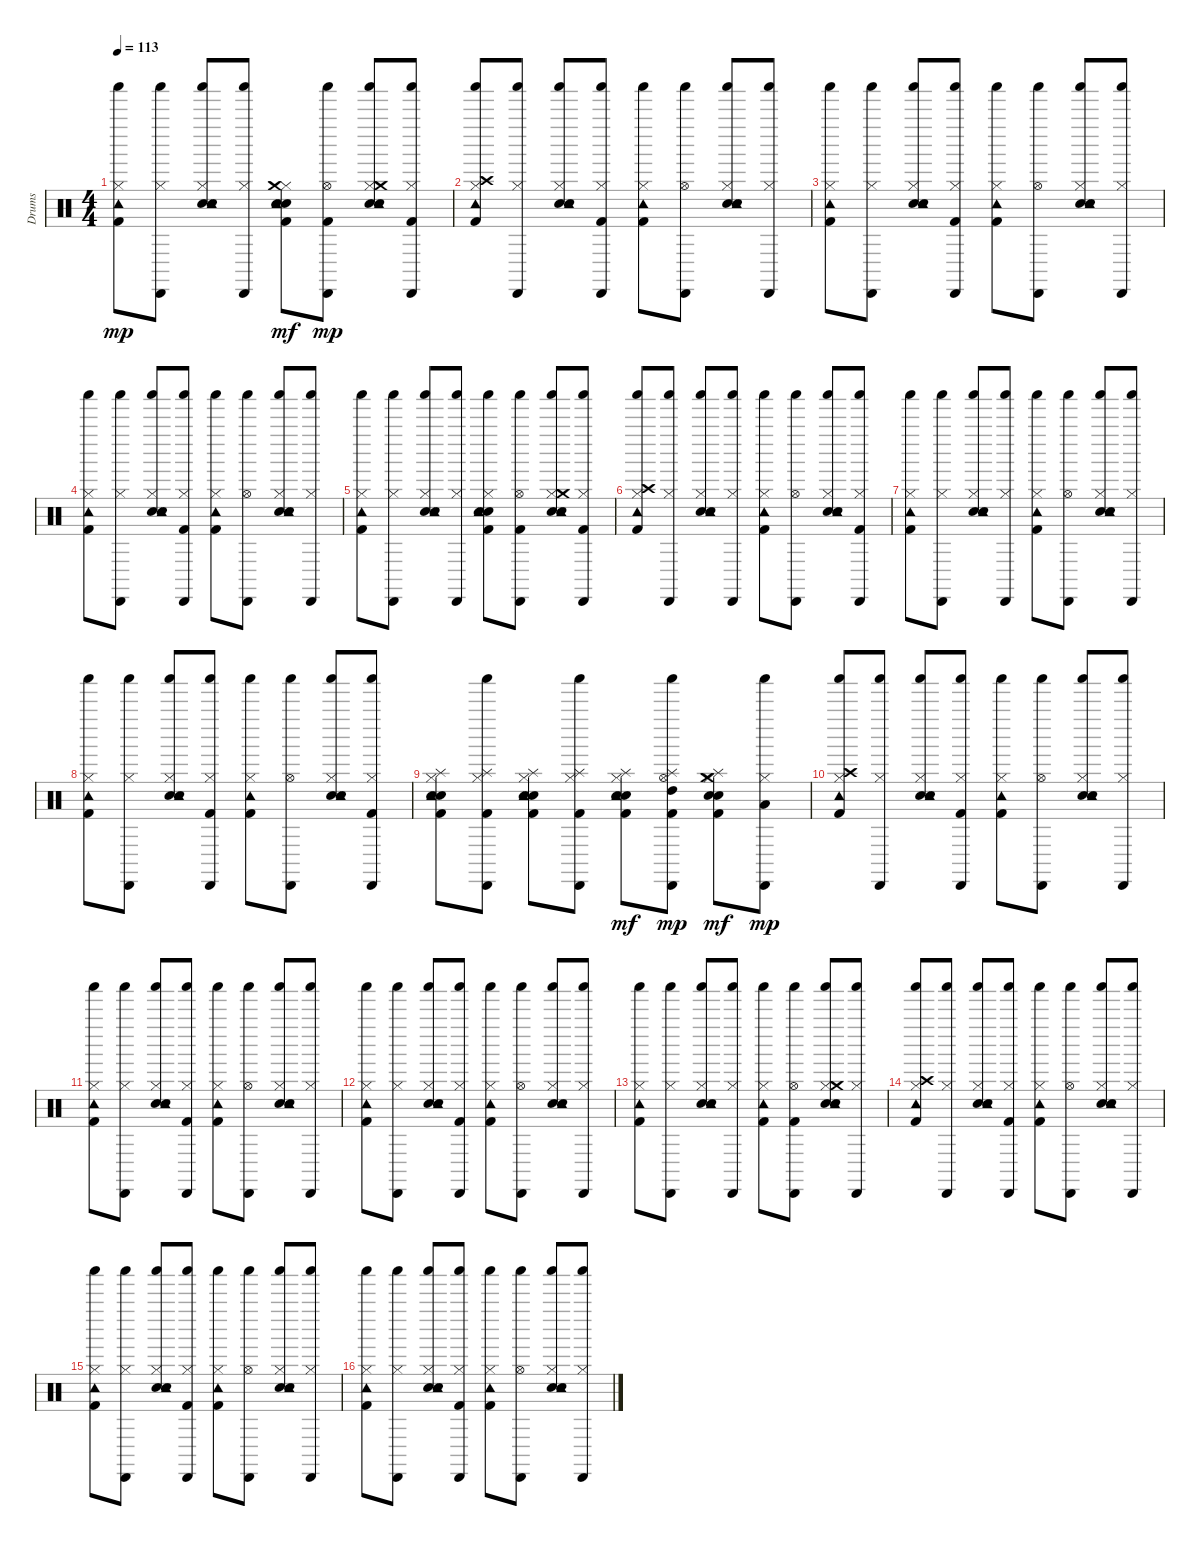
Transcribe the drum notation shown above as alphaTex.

\track ("Drums" "Drums") {instrument percussion}
\staff {score}
\articulation defaults
\ts (4 4)
\tempo 113
\clef neutral
\ks c
("Kick (hit) 2" "Hi-Hat (closed)" "Tambourine (hit)" "Shaker (hit)").8{dy mp} ("Hi-Hat (closed)" "Shaker (hit)" "Cabasa (hit)").8 ("Hand Clap (hit)" "Snare (hit) 2" "Hi-Hat (closed)" "Tambourine (hit)" "Shaker (hit)").8 ("Hi-Hat (closed)" "Shaker (hit)" "Cabasa (hit)").8 ("Kick (hit) 2" "Hand Clap (hit)" "Snare (hit) 2" "Hi-Hat (closed)" "Crash medium (hit)" "Tambourine (hit)").8{dy mf} ("Kick (hit) 2" "Hi-Hat (open)" "Shaker (hit)" "Cabasa (hit)").8{dy mp} ("Hand Clap (hit)" "Snare (hit) 2" "Hi-Hat (closed)" "Crash medium (hit)" "Tambourine (hit)" "Shaker (hit)").8 ("Kick (hit) 2" "Hi-Hat (closed)" "Shaker (hit)" "Cabasa (hit)").8 |
("Kick (hit) 2" "Hi-Hat (closed)" "Crash high (hit)" "Tambourine (hit)" "Shaker (hit)").8 ("Hi-Hat (closed)" "Shaker (hit)" "Cabasa (hit)").8 ("Hand Clap (hit)" "Snare (hit) 2" "Hi-Hat (closed)" "Tambourine (hit)" "Shaker (hit)").8 ("Hi-Hat (closed)" "Shaker (hit)" "Kick (hit) 2" "Cabasa (hit)").8 ("Kick (hit) 2" "Hi-Hat (closed)" "Tambourine (hit)" "Shaker (hit)").8 ("Hi-Hat (open)" "Shaker (hit)" "Cabasa (hit)").8 ("Hand Clap (hit)" "Snare (hit) 2" "Hi-Hat (closed)" "Tambourine (hit)" "Shaker (hit)").8 ("Hi-Hat (closed)" "Shaker (hit)" "Cabasa (hit)").8 |
("Kick (hit) 2" "Hi-Hat (closed)" "Tambourine (hit)" "Shaker (hit)").8 ("Hi-Hat (closed)" "Shaker (hit)" "Cabasa (hit)").8 ("Hand Clap (hit)" "Snare (hit) 2" "Hi-Hat (closed)" "Tambourine (hit)" "Shaker (hit)").8 ("Hi-Hat (closed)" "Shaker (hit)" "Kick (hit) 2" "Cabasa (hit)").8 ("Kick (hit) 2" "Hi-Hat (closed)" "Tambourine (hit)" "Shaker (hit)").8 ("Hi-Hat (open)" "Shaker (hit)" "Cabasa (hit)").8 ("Hand Clap (hit)" "Snare (hit) 2" "Hi-Hat (closed)" "Tambourine (hit)" "Shaker (hit)").8 ("Hi-Hat (closed)" "Shaker (hit)" "Cabasa (hit)").8 |
("Kick (hit) 2" "Hi-Hat (closed)" "Tambourine (hit)" "Shaker (hit)").8 ("Hi-Hat (closed)" "Shaker (hit)" "Cabasa (hit)").8 ("Hand Clap (hit)" "Snare (hit) 2" "Hi-Hat (closed)" "Tambourine (hit)" "Shaker (hit)").8 ("Hi-Hat (closed)" "Shaker (hit)" "Kick (hit) 2" "Cabasa (hit)").8 ("Kick (hit) 2" "Hi-Hat (closed)" "Tambourine (hit)" "Shaker (hit)").8 ("Hi-Hat (open)" "Shaker (hit)" "Cabasa (hit)").8 ("Hand Clap (hit)" "Snare (hit) 2" "Hi-Hat (closed)" "Tambourine (hit)" "Shaker (hit)").8 ("Hi-Hat (closed)" "Shaker (hit)" "Cabasa (hit)").8 |
("Kick (hit) 2" "Hi-Hat (closed)" "Tambourine (hit)" "Shaker (hit)").8 ("Hi-Hat (closed)" "Shaker (hit)" "Cabasa (hit)").8 ("Hand Clap (hit)" "Snare (hit) 2" "Hi-Hat (closed)" "Tambourine (hit)" "Shaker (hit)").8 ("Hi-Hat (closed)" "Shaker (hit)" "Cabasa (hit)").8 ("Kick (hit) 2" "Hand Clap (hit)" "Snare (hit) 2" "Hi-Hat (closed)" "Tambourine (hit)" "Shaker (hit)").8 ("Kick (hit) 2" "Hi-Hat (open)" "Shaker (hit)" "Cabasa (hit)").8 ("Hand Clap (hit)" "Snare (hit) 2" "Hi-Hat (closed)" "Crash medium (hit)" "Tambourine (hit)" "Shaker (hit)").8 ("Kick (hit) 2" "Hi-Hat (closed)" "Shaker (hit)" "Cabasa (hit)").8 |
("Kick (hit) 2" "Hi-Hat (closed)" "Crash high (hit)" "Tambourine (hit)" "Shaker (hit)").8 ("Hi-Hat (closed)" "Shaker (hit)" "Cabasa (hit)").8 ("Hand Clap (hit)" "Snare (hit) 2" "Hi-Hat (closed)" "Tambourine (hit)" "Shaker (hit)").8 ("Hi-Hat (closed)" "Shaker (hit)" "Cabasa (hit)").8 ("Kick (hit) 2" "Hi-Hat (closed)" "Tambourine (hit)" "Shaker (hit)").8 ("Hi-Hat (open)" "Shaker (hit)" "Cabasa (hit)").8 ("Hand Clap (hit)" "Snare (hit) 2" "Hi-Hat (closed)" "Tambourine (hit)" "Shaker (hit)").8 ("Hi-Hat (closed)" "Shaker (hit)" "Kick (hit) 2" "Cabasa (hit)").8 |
("Kick (hit) 2" "Hi-Hat (closed)" "Tambourine (hit)" "Shaker (hit)").8 ("Hi-Hat (closed)" "Shaker (hit)" "Cabasa (hit)").8 ("Hand Clap (hit)" "Snare (hit) 2" "Hi-Hat (closed)" "Tambourine (hit)" "Shaker (hit)").8 ("Hi-Hat (closed)" "Shaker (hit)" "Cabasa (hit)").8 ("Kick (hit) 2" "Hi-Hat (closed)" "Tambourine (hit)" "Shaker (hit)").8 ("Hi-Hat (open)" "Shaker (hit)" "Cabasa (hit)").8 ("Hand Clap (hit)" "Snare (hit) 2" "Hi-Hat (closed)" "Tambourine (hit)" "Shaker (hit)").8 ("Hi-Hat (closed)" "Shaker (hit)" "Cabasa (hit)").8 |
("Kick (hit) 2" "Hi-Hat (closed)" "Tambourine (hit)" "Shaker (hit)").8 ("Hi-Hat (closed)" "Shaker (hit)" "Cabasa (hit)").8 ("Hand Clap (hit)" "Snare (hit) 2" "Hi-Hat (closed)" "Tambourine (hit)" "Shaker (hit)").8 ("Hi-Hat (closed)" "Shaker (hit)" "Kick (hit) 2" "Cabasa (hit)").8 ("Kick (hit) 2" "Hi-Hat (closed)" "Tambourine (hit)" "Shaker (hit)").8 ("Hi-Hat (open)" "Shaker (hit)" "Cabasa (hit)").8 ("Hand Clap (hit)" "Snare (hit) 2" "Hi-Hat (closed)" "Tambourine (hit)" "Shaker (hit)").8 ("Hi-Hat (closed)" "Shaker (hit)" "Kick (hit) 2" "Cabasa (hit)").8 |
("Kick (hit) 2" "Snare (hit) 2" "Hand Clap (hit)" "Hi-Hat (closed)" "Splash (hit)" "Tambourine (hit)").8 ("Hi-Hat (closed)" "Splash (hit)" "Shaker (hit)" "Kick (hit) 2" "Cabasa (hit)").8 ("Kick (hit) 2" "Snare (hit) 2" "Hand Clap (hit)" "Hi-Hat (closed)" "Splash (hit)" "Tambourine (hit)").8 ("Hi-Hat (closed)" "Splash (hit)" "Shaker (hit)" "Kick (hit) 2" "Cabasa (hit)").8 ("Kick (hit) 2" "Snare (hit) 2" "Hand Clap (hit)" "Hi-Hat (closed)" "Splash (hit)" "Tambourine (hit)").8{dy mf} ("Hi-Hat (open)" "Splash (hit)" "High Tom (hit)" "Shaker (hit)" "Kick (hit) 2" "Cabasa (hit)").8{dy mp} ("Kick (hit) 2" "Hand Clap (hit)" "Snare (hit) 2" "Hi-Hat (closed)" "Splash (hit)" "Crash medium (hit)").8{dy mf} ("Hi-Hat (closed)" "Low Tom (hit)" "Shaker (hit)" "Cabasa (hit)").8{dy mp} |
("Kick (hit) 2" "Hi-Hat (closed)" "Crash high (hit)" "Tambourine (hit)" "Shaker (hit)").8 ("Hi-Hat (closed)" "Shaker (hit)" "Cabasa (hit)").8 ("Hand Clap (hit)" "Snare (hit) 2" "Hi-Hat (closed)" "Tambourine (hit)" "Shaker (hit)").8 ("Hi-Hat (closed)" "Shaker (hit)" "Kick (hit) 2" "Cabasa (hit)").8 ("Kick (hit) 2" "Hi-Hat (closed)" "Tambourine (hit)" "Shaker (hit)").8 ("Hi-Hat (open)" "Shaker (hit)" "Cabasa (hit)").8 ("Hand Clap (hit)" "Snare (hit) 2" "Hi-Hat (closed)" "Tambourine (hit)" "Shaker (hit)").8 ("Hi-Hat (closed)" "Shaker (hit)" "Cabasa (hit)").8 |
("Kick (hit) 2" "Hi-Hat (closed)" "Tambourine (hit)" "Shaker (hit)").8 ("Hi-Hat (closed)" "Shaker (hit)" "Cabasa (hit)").8 ("Hand Clap (hit)" "Snare (hit) 2" "Hi-Hat (closed)" "Tambourine (hit)" "Shaker (hit)").8 ("Hi-Hat (closed)" "Shaker (hit)" "Kick (hit) 2" "Cabasa (hit)").8 ("Kick (hit) 2" "Hi-Hat (closed)" "Tambourine (hit)" "Shaker (hit)").8 ("Hi-Hat (open)" "Shaker (hit)" "Cabasa (hit)").8 ("Hand Clap (hit)" "Snare (hit) 2" "Hi-Hat (closed)" "Tambourine (hit)" "Shaker (hit)").8 ("Hi-Hat (closed)" "Shaker (hit)" "Cabasa (hit)").8 |
("Kick (hit) 2" "Hi-Hat (closed)" "Tambourine (hit)" "Shaker (hit)").8 ("Hi-Hat (closed)" "Shaker (hit)" "Cabasa (hit)").8 ("Hand Clap (hit)" "Snare (hit) 2" "Hi-Hat (closed)" "Tambourine (hit)" "Shaker (hit)").8 ("Hi-Hat (closed)" "Shaker (hit)" "Kick (hit) 2" "Cabasa (hit)").8 ("Kick (hit) 2" "Hi-Hat (closed)" "Tambourine (hit)" "Shaker (hit)").8 ("Hi-Hat (open)" "Shaker (hit)" "Cabasa (hit)").8 ("Hand Clap (hit)" "Snare (hit) 2" "Hi-Hat (closed)" "Tambourine (hit)" "Shaker (hit)").8 ("Hi-Hat (closed)" "Shaker (hit)" "Cabasa (hit)").8 |
("Kick (hit) 2" "Hi-Hat (closed)" "Tambourine (hit)" "Shaker (hit)").8 ("Hi-Hat (closed)" "Shaker (hit)" "Cabasa (hit)").8 ("Hand Clap (hit)" "Snare (hit) 2" "Hi-Hat (closed)" "Tambourine (hit)" "Shaker (hit)").8 ("Hi-Hat (closed)" "Shaker (hit)" "Cabasa (hit)").8 ("Kick (hit) 2" "Hi-Hat (closed)" "Tambourine (hit)" "Shaker (hit)").8 ("Kick (hit) 2" "Hi-Hat (open)" "Shaker (hit)" "Cabasa (hit)").8 ("Hand Clap (hit)" "Snare (hit) 2" "Hi-Hat (closed)" "Crash medium (hit)" "Tambourine (hit)" "Shaker (hit)").8 ("Hi-Hat (closed)" "Shaker (hit)" "Cabasa (hit)").8 |
("Kick (hit) 2" "Hi-Hat (closed)" "Crash high (hit)" "Tambourine (hit)" "Shaker (hit)").8 ("Hi-Hat (closed)" "Shaker (hit)" "Cabasa (hit)").8 ("Hand Clap (hit)" "Snare (hit) 2" "Hi-Hat (closed)" "Tambourine (hit)" "Shaker (hit)").8 ("Hi-Hat (closed)" "Shaker (hit)" "Kick (hit) 2" "Cabasa (hit)").8 ("Kick (hit) 2" "Hi-Hat (closed)" "Tambourine (hit)" "Shaker (hit)").8 ("Hi-Hat (open)" "Shaker (hit)" "Cabasa (hit)").8 ("Hand Clap (hit)" "Snare (hit) 2" "Hi-Hat (closed)" "Tambourine (hit)" "Shaker (hit)").8 ("Hi-Hat (closed)" "Shaker (hit)" "Cabasa (hit)").8 |
("Kick (hit) 2" "Hi-Hat (closed)" "Tambourine (hit)" "Shaker (hit)").8 ("Hi-Hat (closed)" "Shaker (hit)" "Cabasa (hit)").8 ("Hand Clap (hit)" "Snare (hit) 2" "Hi-Hat (closed)" "Tambourine (hit)" "Shaker (hit)").8 ("Hi-Hat (closed)" "Shaker (hit)" "Kick (hit) 2" "Cabasa (hit)").8 ("Kick (hit) 2" "Hi-Hat (closed)" "Tambourine (hit)" "Shaker (hit)").8 ("Hi-Hat (open)" "Shaker (hit)" "Cabasa (hit)").8 ("Hand Clap (hit)" "Snare (hit) 2" "Hi-Hat (closed)" "Tambourine (hit)" "Shaker (hit)").8 ("Hi-Hat (closed)" "Shaker (hit)" "Cabasa (hit)").8 |
("Kick (hit) 2" "Hi-Hat (closed)" "Tambourine (hit)" "Shaker (hit)").8 ("Hi-Hat (closed)" "Shaker (hit)" "Cabasa (hit)").8 ("Hand Clap (hit)" "Snare (hit) 2" "Hi-Hat (closed)" "Tambourine (hit)" "Shaker (hit)").8 ("Hi-Hat (closed)" "Shaker (hit)" "Kick (hit) 2" "Cabasa (hit)").8 ("Kick (hit) 2" "Hi-Hat (closed)" "Tambourine (hit)" "Shaker (hit)").8 ("Hi-Hat (open)" "Shaker (hit)" "Cabasa (hit)").8 ("Hand Clap (hit)" "Snare (hit) 2" "Hi-Hat (closed)" "Tambourine (hit)" "Shaker (hit)").8 ("Hi-Hat (closed)" "Shaker (hit)" "Cabasa (hit)").8
